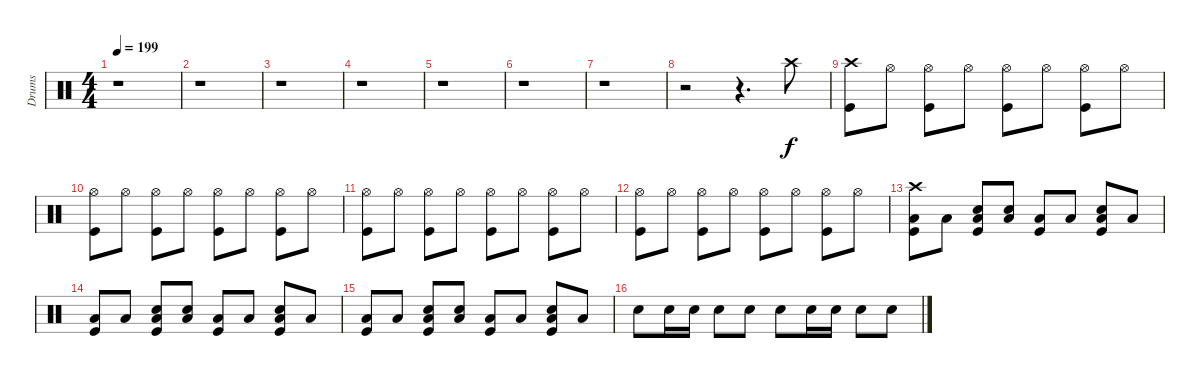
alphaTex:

\track ("Drums" "Drums") {instrument percussion}
\staff {score}
\articulation defaults
\ts (4 4)
\tempo 199
\clef neutral
\ks c
r.1{dy f} |
r.1 |
r.1 |
r.1 |
r.1 |
r.1 |
r.1 |
r.2 r.4{d} "Crash high (hit)".8 |
("Crash high (hit)" "Kick (hit)").8 "Hi-Hat (open)".8 ("Hi-Hat (open)" "Kick (hit)").8 "Hi-Hat (open)".8 ("Hi-Hat (open)" "Kick (hit)").8 "Hi-Hat (open)".8 ("Hi-Hat (open)" "Kick (hit)").8 "Hi-Hat (open)".8 |
("Hi-Hat (open)" "Kick (hit)").8 "Hi-Hat (open)".8 ("Hi-Hat (open)" "Kick (hit)").8 "Hi-Hat (open)".8 ("Hi-Hat (open)" "Kick (hit)").8 "Hi-Hat (open)".8 ("Hi-Hat (open)" "Kick (hit)").8 "Hi-Hat (open)".8 |
("Hi-Hat (open)" "Kick (hit)").8 "Hi-Hat (open)".8 ("Hi-Hat (open)" "Kick (hit)").8 "Hi-Hat (open)".8 ("Hi-Hat (open)" "Kick (hit)").8 "Hi-Hat (open)".8 ("Hi-Hat (open)" "Kick (hit)").8 "Hi-Hat (open)".8 |
("Hi-Hat (open)" "Kick (hit)").8 "Hi-Hat (open)".8 ("Hi-Hat (open)" "Kick (hit)").8 "Hi-Hat (open)".8 ("Hi-Hat (open)" "Kick (hit)").8 "Hi-Hat (open)".8 ("Hi-Hat (open)" "Kick (hit)").8 "Hi-Hat (open)".8 |
("Low Tom (hit)" "Kick (hit)" "Crash high (hit)").8 "Low Tom (hit)".8 ("Low Tom (hit)" "Kick (hit)" "Snare (hit) 2").8 ("Low Tom (hit)" "Snare (hit) 2").8 ("Low Tom (hit)" "Kick (hit)").8 "Low Tom (hit)".8 ("Low Tom (hit)" "Kick (hit)" "Snare (hit) 2").8 "Low Tom (hit)".8 |
("Low Tom (hit)" "Kick (hit)").8 "Low Tom (hit)".8 ("Low Tom (hit)" "Kick (hit)" "Snare (hit) 2").8 ("Low Tom (hit)" "Snare (hit) 2").8 ("Low Tom (hit)" "Kick (hit)").8 "Low Tom (hit)".8 ("Low Tom (hit)" "Kick (hit)" "Snare (hit) 2").8 "Low Tom (hit)".8 |
("Low Tom (hit)" "Kick (hit)").8 "Low Tom (hit)".8 ("Low Tom (hit)" "Kick (hit)" "Snare (hit) 2").8 ("Low Tom (hit)" "Snare (hit) 2").8 ("Low Tom (hit)" "Kick (hit)").8 "Low Tom (hit)".8 ("Low Tom (hit)" "Kick (hit)" "Snare (hit) 2").8 "Low Tom (hit)".8 |
"Snare (hit) 2".8 "Snare (hit) 2".16 "Snare (hit) 2".16 "Snare (hit) 2".8 "Snare (hit) 2".8 "Snare (hit) 2".8 "Snare (hit) 2".16 "Snare (hit) 2".16 "Snare (hit) 2".8 "Snare (hit) 2".8
